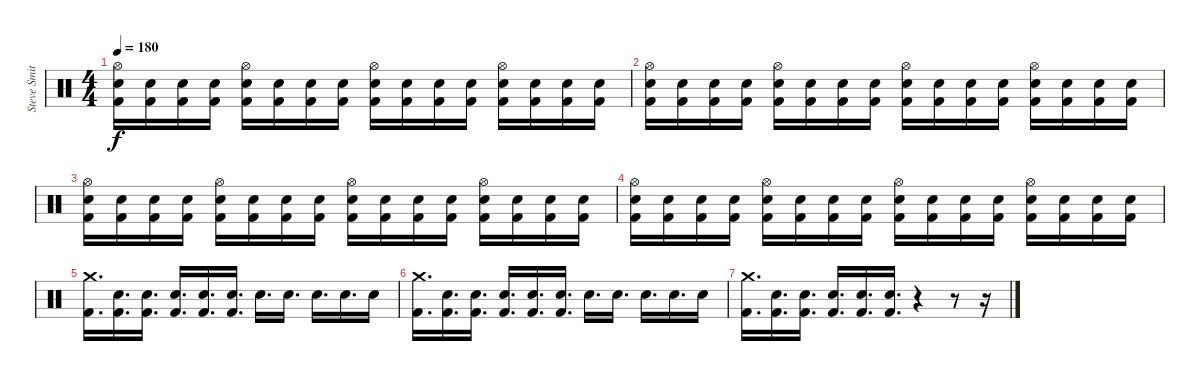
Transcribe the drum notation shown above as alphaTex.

\track ("Steve Smith" "Steve Smit") {instrument percussion}
\staff {score}
\articulation defaults
\ts (4 4)
\tempo 180
\clef neutral
\ks c
("Hi-Hat (open)" "Electric Snare (hit)" "Kick (hit) 2").16{dy f} ("Electric Snare (hit)" "Kick (hit) 2").16 ("Electric Snare (hit)" "Kick (hit) 2").16 ("Electric Snare (hit)" "Kick (hit) 2").16 ("Hi-Hat (open)" "Electric Snare (hit)" "Kick (hit) 2").16 ("Electric Snare (hit)" "Kick (hit) 2").16 ("Electric Snare (hit)" "Kick (hit) 2").16 ("Electric Snare (hit)" "Kick (hit) 2").16 ("Hi-Hat (open)" "Electric Snare (hit)" "Kick (hit) 2").16 ("Electric Snare (hit)" "Kick (hit) 2").16 ("Electric Snare (hit)" "Kick (hit) 2").16 ("Electric Snare (hit)" "Kick (hit) 2").16 ("Hi-Hat (open)" "Electric Snare (hit)" "Kick (hit) 2").16 ("Electric Snare (hit)" "Kick (hit) 2").16 ("Electric Snare (hit)" "Kick (hit) 2").16 ("Electric Snare (hit)" "Kick (hit) 2").16 |
("Hi-Hat (open)" "Electric Snare (hit)" "Kick (hit) 2").16 ("Electric Snare (hit)" "Kick (hit) 2").16 ("Electric Snare (hit)" "Kick (hit) 2").16 ("Electric Snare (hit)" "Kick (hit) 2").16 ("Hi-Hat (open)" "Electric Snare (hit)" "Kick (hit) 2").16 ("Electric Snare (hit)" "Kick (hit) 2").16 ("Electric Snare (hit)" "Kick (hit) 2").16 ("Electric Snare (hit)" "Kick (hit) 2").16 ("Hi-Hat (open)" "Electric Snare (hit)" "Kick (hit) 2").16 ("Electric Snare (hit)" "Kick (hit) 2").16 ("Electric Snare (hit)" "Kick (hit) 2").16 ("Electric Snare (hit)" "Kick (hit) 2").16 ("Hi-Hat (open)" "Electric Snare (hit)" "Kick (hit) 2").16 ("Electric Snare (hit)" "Kick (hit) 2").16 ("Electric Snare (hit)" "Kick (hit) 2").16 ("Electric Snare (hit)" "Kick (hit) 2").16 |
("Hi-Hat (open)" "Electric Snare (hit)" "Kick (hit) 2").16 ("Electric Snare (hit)" "Kick (hit) 2").16 ("Electric Snare (hit)" "Kick (hit) 2").16 ("Electric Snare (hit)" "Kick (hit) 2").16 ("Hi-Hat (open)" "Electric Snare (hit)" "Kick (hit) 2").16 ("Electric Snare (hit)" "Kick (hit) 2").16 ("Electric Snare (hit)" "Kick (hit) 2").16 ("Electric Snare (hit)" "Kick (hit) 2").16 ("Hi-Hat (open)" "Electric Snare (hit)" "Kick (hit) 2").16 ("Electric Snare (hit)" "Kick (hit) 2").16 ("Electric Snare (hit)" "Kick (hit) 2").16 ("Electric Snare (hit)" "Kick (hit) 2").16 ("Hi-Hat (open)" "Electric Snare (hit)" "Kick (hit) 2").16 ("Electric Snare (hit)" "Kick (hit) 2").16 ("Electric Snare (hit)" "Kick (hit) 2").16 ("Electric Snare (hit)" "Kick (hit) 2").16 |
("Hi-Hat (open)" "Electric Snare (hit)" "Kick (hit) 2").16 ("Electric Snare (hit)" "Kick (hit) 2").16 ("Electric Snare (hit)" "Kick (hit) 2").16 ("Electric Snare (hit)" "Kick (hit) 2").16 ("Hi-Hat (open)" "Electric Snare (hit)" "Kick (hit) 2").16 ("Electric Snare (hit)" "Kick (hit) 2").16 ("Electric Snare (hit)" "Kick (hit) 2").16 ("Electric Snare (hit)" "Kick (hit) 2").16 ("Hi-Hat (open)" "Electric Snare (hit)" "Kick (hit) 2").16 ("Electric Snare (hit)" "Kick (hit) 2").16 ("Electric Snare (hit)" "Kick (hit) 2").16 ("Electric Snare (hit)" "Kick (hit) 2").16 ("Hi-Hat (open)" "Electric Snare (hit)" "Kick (hit) 2").16 ("Electric Snare (hit)" "Kick (hit) 2").16 ("Electric Snare (hit)" "Kick (hit) 2").16 ("Electric Snare (hit)" "Kick (hit) 2").16 |
("Crash medium (hit)" "Kick (hit) 2").16{d} ("Electric Snare (hit)" "Kick (hit) 2").16{d} ("Electric Snare (hit)" "Kick (hit) 2").16{d} ("Electric Snare (hit)" "Kick (hit) 2").16{d} ("Electric Snare (hit)" "Kick (hit) 2").16{d} ("Electric Snare (hit)" "Kick (hit) 2").16{d} "Electric Snare (hit)".16{d} "Electric Snare (hit)".16{d} "Electric Snare (hit)".16{d} "Electric Snare (hit)".16{d} "Electric Snare (hit)".16 |
("Crash medium (hit)" "Kick (hit) 2").16{d} ("Electric Snare (hit)" "Kick (hit) 2").16{d} ("Electric Snare (hit)" "Kick (hit) 2").16{d} ("Electric Snare (hit)" "Kick (hit) 2").16{d} ("Electric Snare (hit)" "Kick (hit) 2").16{d} ("Electric Snare (hit)" "Kick (hit) 2").16{d} "Electric Snare (hit)".16{d} "Electric Snare (hit)".16{d} "Electric Snare (hit)".16{d} "Electric Snare (hit)".16{d} "Electric Snare (hit)".16 |
("Crash medium (hit)" "Kick (hit) 2").16{d} ("Electric Snare (hit)" "Kick (hit) 2").16{d} ("Electric Snare (hit)" "Kick (hit) 2").16{d} ("Electric Snare (hit)" "Kick (hit) 2").16{d} ("Electric Snare (hit)" "Kick (hit) 2").16{d} ("Electric Snare (hit)" "Kick (hit) 2").16{d} r.4 r.8 r.16
